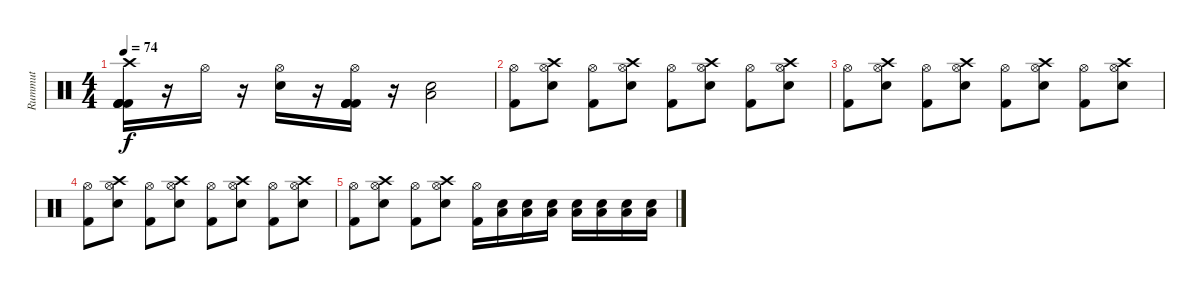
\track ("Rummut" "Rummut") {instrument percussion}
\staff {score}
\articulation defaults
\ts (4 4)
\tempo 74
\clef neutral
\ks c
("Crash high (hit)" "Kick (hit) 2" "Kick (hit) 2" "Kick (hit) 2" "Kick (hit) 2").16{dy f} r.16 "Hi-Hat (open)".16 r.16 ("Hi-Hat (open)" "Electric Snare (hit)").16 r.16 ("Hi-Hat (open)" "Kick (hit) 2" "Kick (hit) 2" "Kick (hit) 2" "Kick (hit) 2").16 r.16 ("Electric Snare (hit)" "Low Tom (hit)").2 |
("Hi-Hat (open)" "Kick (hit) 2").8 ("Crash high (hit)" "Hi-Hat (open)" "Electric Snare (hit)").8 ("Hi-Hat (open)" "Kick (hit) 2").8 ("Crash high (hit)" "Hi-Hat (open)" "Electric Snare (hit)").8 ("Hi-Hat (open)" "Kick (hit) 2").8 ("Crash high (hit)" "Hi-Hat (open)" "Electric Snare (hit)").8 ("Hi-Hat (open)" "Kick (hit) 2").8 ("Crash high (hit)" "Hi-Hat (open)" "Electric Snare (hit)").8 |
("Hi-Hat (open)" "Kick (hit) 2").8 ("Crash high (hit)" "Hi-Hat (open)" "Electric Snare (hit)").8 ("Hi-Hat (open)" "Kick (hit) 2").8 ("Crash high (hit)" "Hi-Hat (open)" "Electric Snare (hit)").8 ("Hi-Hat (open)" "Kick (hit) 2").8 ("Crash high (hit)" "Hi-Hat (open)" "Electric Snare (hit)").8 ("Hi-Hat (open)" "Kick (hit) 2").8 ("Crash high (hit)" "Hi-Hat (open)" "Electric Snare (hit)").8 |
("Hi-Hat (open)" "Kick (hit) 2").8 ("Crash high (hit)" "Hi-Hat (open)" "Electric Snare (hit)").8 ("Hi-Hat (open)" "Kick (hit) 2").8 ("Crash high (hit)" "Hi-Hat (open)" "Electric Snare (hit)").8 ("Hi-Hat (open)" "Kick (hit) 2").8 ("Crash high (hit)" "Hi-Hat (open)" "Electric Snare (hit)").8 ("Hi-Hat (open)" "Kick (hit) 2").8 ("Crash high (hit)" "Hi-Hat (open)" "Electric Snare (hit)").8 |
("Hi-Hat (open)" "Kick (hit) 2").8 ("Crash high (hit)" "Hi-Hat (open)" "Electric Snare (hit)").8 ("Hi-Hat (open)" "Kick (hit) 2").8 ("Crash high (hit)" "Hi-Hat (open)" "Electric Snare (hit)").8 ("Hi-Hat (open)" "Kick (hit) 2").16 ("Electric Snare (hit)" "Low Tom (hit)").16 ("Electric Snare (hit)" "Low Tom (hit)").16 ("Electric Snare (hit)" "Low Tom (hit)").16 ("Electric Snare (hit)" "Low Tom (hit)").16 ("Electric Snare (hit)" "Low Tom (hit)").16 ("Electric Snare (hit)" "Low Tom (hit)").16 ("Electric Snare (hit)" "Low Tom (hit)").16
